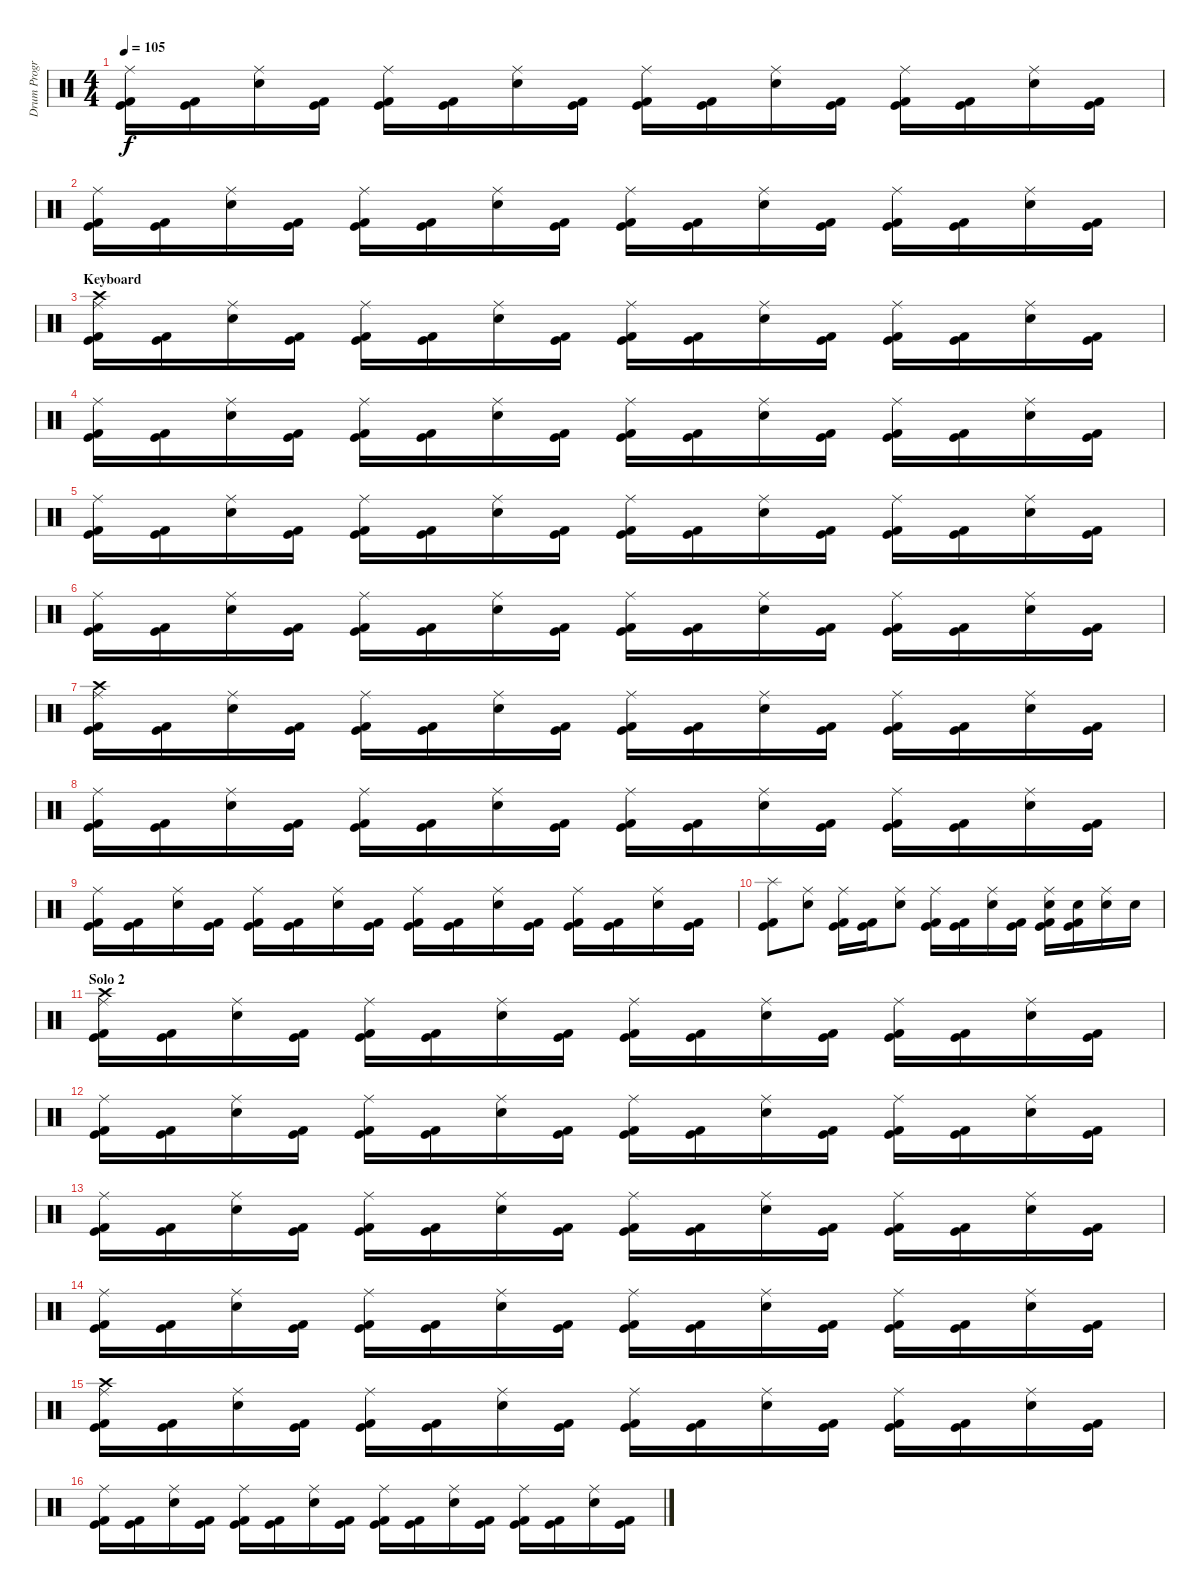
\track ("Drum Program - BG" "Drum Progr") {instrument percussion}
\staff {score}
\articulation defaults
\ts (4 4)
\tempo 105
\clef neutral
\ks c
("Kick (hit)" "Kick (hit) 2" "Ride (middle)").16{dy f} ("Kick (hit)" "Kick (hit) 2").16 ("Snare (hit) 2" "Ride (middle)").16 ("Kick (hit)" "Kick (hit) 2").16 ("Kick (hit)" "Kick (hit) 2" "Ride (middle)").16 ("Kick (hit)" "Kick (hit) 2").16 ("Snare (hit) 2" "Ride (middle)").16 ("Kick (hit)" "Kick (hit) 2").16 ("Kick (hit)" "Kick (hit) 2" "Ride (middle)").16 ("Kick (hit)" "Kick (hit) 2").16 ("Snare (hit) 2" "Ride (middle)").16 ("Kick (hit)" "Kick (hit) 2").16 ("Kick (hit)" "Kick (hit) 2" "Ride (middle)").16 ("Kick (hit)" "Kick (hit) 2").16 ("Snare (hit) 2" "Ride (middle)").16 ("Kick (hit)" "Kick (hit) 2").16 |
("Kick (hit)" "Kick (hit) 2" "Ride (middle)").16 ("Kick (hit)" "Kick (hit) 2").16 ("Snare (hit) 2" "Ride (middle)").16 ("Kick (hit)" "Kick (hit) 2").16 ("Kick (hit)" "Kick (hit) 2" "Ride (middle)").16 ("Kick (hit)" "Kick (hit) 2").16 ("Snare (hit) 2" "Ride (middle)").16 ("Kick (hit)" "Kick (hit) 2").16 ("Kick (hit)" "Kick (hit) 2" "Ride (middle)").16 ("Kick (hit)" "Kick (hit) 2").16 ("Snare (hit) 2" "Ride (middle)").16 ("Kick (hit)" "Kick (hit) 2").16 ("Kick (hit)" "Kick (hit) 2" "Ride (middle)").16 ("Kick (hit)" "Kick (hit) 2").16 ("Snare (hit) 2" "Ride (middle)").16 ("Kick (hit)" "Kick (hit) 2").16 |
\section ("" "Keyboard")
("Kick (hit)" "Kick (hit) 2" "Crash high (hit)" "Ride (middle)").16 ("Kick (hit)" "Kick (hit) 2").16 ("Snare (hit) 2" "Ride (middle)").16 ("Kick (hit)" "Kick (hit) 2").16 ("Kick (hit)" "Kick (hit) 2" "Ride (middle)").16 ("Kick (hit)" "Kick (hit) 2").16 ("Snare (hit) 2" "Ride (middle)").16 ("Kick (hit)" "Kick (hit) 2").16 ("Kick (hit)" "Kick (hit) 2" "Ride (middle)").16 ("Kick (hit)" "Kick (hit) 2").16 ("Snare (hit) 2" "Ride (middle)").16 ("Kick (hit)" "Kick (hit) 2").16 ("Kick (hit)" "Kick (hit) 2" "Ride (middle)").16 ("Kick (hit)" "Kick (hit) 2").16 ("Snare (hit) 2" "Ride (middle)").16 ("Kick (hit)" "Kick (hit) 2").16 |
("Kick (hit)" "Kick (hit) 2" "Ride (middle)").16 ("Kick (hit)" "Kick (hit) 2").16 ("Snare (hit) 2" "Ride (middle)").16 ("Kick (hit)" "Kick (hit) 2").16 ("Kick (hit)" "Kick (hit) 2" "Ride (middle)").16 ("Kick (hit)" "Kick (hit) 2").16 ("Snare (hit) 2" "Ride (middle)").16 ("Kick (hit)" "Kick (hit) 2").16 ("Kick (hit)" "Kick (hit) 2" "Ride (middle)").16 ("Kick (hit)" "Kick (hit) 2").16 ("Snare (hit) 2" "Ride (middle)").16 ("Kick (hit)" "Kick (hit) 2").16 ("Kick (hit)" "Kick (hit) 2" "Ride (middle)").16 ("Kick (hit)" "Kick (hit) 2").16 ("Snare (hit) 2" "Ride (middle)").16 ("Kick (hit)" "Kick (hit) 2").16 |
("Kick (hit)" "Kick (hit) 2" "Ride (middle)").16 ("Kick (hit)" "Kick (hit) 2").16 ("Snare (hit) 2" "Ride (middle)").16 ("Kick (hit)" "Kick (hit) 2").16 ("Kick (hit)" "Kick (hit) 2" "Ride (middle)").16 ("Kick (hit)" "Kick (hit) 2").16 ("Snare (hit) 2" "Ride (middle)").16 ("Kick (hit)" "Kick (hit) 2").16 ("Kick (hit)" "Kick (hit) 2" "Ride (middle)").16 ("Kick (hit)" "Kick (hit) 2").16 ("Snare (hit) 2" "Ride (middle)").16 ("Kick (hit)" "Kick (hit) 2").16 ("Kick (hit)" "Kick (hit) 2" "Ride (middle)").16 ("Kick (hit)" "Kick (hit) 2").16 ("Snare (hit) 2" "Ride (middle)").16 ("Kick (hit)" "Kick (hit) 2").16 |
("Kick (hit)" "Kick (hit) 2" "Ride (middle)").16 ("Kick (hit)" "Kick (hit) 2").16 ("Snare (hit) 2" "Ride (middle)").16 ("Kick (hit)" "Kick (hit) 2").16 ("Kick (hit)" "Kick (hit) 2" "Ride (middle)").16 ("Kick (hit)" "Kick (hit) 2").16 ("Snare (hit) 2" "Ride (middle)").16 ("Kick (hit)" "Kick (hit) 2").16 ("Kick (hit)" "Kick (hit) 2" "Ride (middle)").16 ("Kick (hit)" "Kick (hit) 2").16 ("Snare (hit) 2" "Ride (middle)").16 ("Kick (hit)" "Kick (hit) 2").16 ("Kick (hit)" "Kick (hit) 2" "Ride (middle)").16 ("Kick (hit)" "Kick (hit) 2").16 ("Snare (hit) 2" "Ride (middle)").16 ("Kick (hit)" "Kick (hit) 2").16 |
("Kick (hit)" "Kick (hit) 2" "Crash high (hit)" "Ride (middle)").16 ("Kick (hit)" "Kick (hit) 2").16 ("Snare (hit) 2" "Ride (middle)").16 ("Kick (hit)" "Kick (hit) 2").16 ("Kick (hit)" "Kick (hit) 2" "Ride (middle)").16 ("Kick (hit)" "Kick (hit) 2").16 ("Snare (hit) 2" "Ride (middle)").16 ("Kick (hit)" "Kick (hit) 2").16 ("Kick (hit)" "Kick (hit) 2" "Ride (middle)").16 ("Kick (hit)" "Kick (hit) 2").16 ("Snare (hit) 2" "Ride (middle)").16 ("Kick (hit)" "Kick (hit) 2").16 ("Kick (hit)" "Kick (hit) 2" "Ride (middle)").16 ("Kick (hit)" "Kick (hit) 2").16 ("Snare (hit) 2" "Ride (middle)").16 ("Kick (hit)" "Kick (hit) 2").16 |
("Kick (hit)" "Kick (hit) 2" "Ride (middle)").16 ("Kick (hit)" "Kick (hit) 2").16 ("Snare (hit) 2" "Ride (middle)").16 ("Kick (hit)" "Kick (hit) 2").16 ("Kick (hit)" "Kick (hit) 2" "Ride (middle)").16 ("Kick (hit)" "Kick (hit) 2").16 ("Snare (hit) 2" "Ride (middle)").16 ("Kick (hit)" "Kick (hit) 2").16 ("Kick (hit)" "Kick (hit) 2" "Ride (middle)").16 ("Kick (hit)" "Kick (hit) 2").16 ("Snare (hit) 2" "Ride (middle)").16 ("Kick (hit)" "Kick (hit) 2").16 ("Kick (hit)" "Kick (hit) 2" "Ride (middle)").16 ("Kick (hit)" "Kick (hit) 2").16 ("Snare (hit) 2" "Ride (middle)").16 ("Kick (hit)" "Kick (hit) 2").16 |
("Kick (hit)" "Kick (hit) 2" "Ride (middle)").16 ("Kick (hit)" "Kick (hit) 2").16 ("Snare (hit) 2" "Ride (middle)").16 ("Kick (hit)" "Kick (hit) 2").16 ("Kick (hit)" "Kick (hit) 2" "Ride (middle)").16 ("Kick (hit)" "Kick (hit) 2").16 ("Snare (hit) 2" "Ride (middle)").16 ("Kick (hit)" "Kick (hit) 2").16 ("Kick (hit)" "Kick (hit) 2" "Ride (middle)").16 ("Kick (hit)" "Kick (hit) 2").16 ("Snare (hit) 2" "Ride (middle)").16 ("Kick (hit)" "Kick (hit) 2").16 ("Kick (hit)" "Kick (hit) 2" "Ride (middle)").16 ("Kick (hit)" "Kick (hit) 2").16 ("Snare (hit) 2" "Ride (middle)").16 ("Kick (hit)" "Kick (hit) 2").16 |
("Kick (hit)" "Kick (hit) 2" "Splash (hit)").8 ("Snare (hit) 2" "Ride (middle)").8 ("Kick (hit)" "Kick (hit) 2" "Ride (middle)").16 ("Kick (hit)" "Kick (hit) 2").16 ("Snare (hit) 2" "Ride (middle)").8 ("Kick (hit)" "Kick (hit) 2" "Ride (middle)").16 ("Kick (hit)" "Kick (hit) 2").16 ("Electric Snare (hit)" "Ride (middle)").16 ("Kick (hit)" "Kick (hit) 2").16 ("Kick (hit)" "Kick (hit) 2" "Electric Snare (hit)" "Ride (middle)").16 ("Kick (hit)" "Kick (hit) 2" "Electric Snare (hit)").16 ("Electric Snare (hit)" "Ride (middle)").16 "Electric Snare (hit)".16 |
\section ("" "Solo 2")
("Kick (hit)" "Kick (hit) 2" "Crash high (hit)" "Ride (middle)").16 ("Kick (hit)" "Kick (hit) 2").16 ("Snare (hit) 2" "Ride (middle)").16 ("Kick (hit)" "Kick (hit) 2").16 ("Kick (hit)" "Kick (hit) 2" "Ride (middle)").16 ("Kick (hit)" "Kick (hit) 2").16 ("Snare (hit) 2" "Ride (middle)").16 ("Kick (hit)" "Kick (hit) 2").16 ("Kick (hit)" "Kick (hit) 2" "Ride (middle)").16 ("Kick (hit)" "Kick (hit) 2").16 ("Snare (hit) 2" "Ride (middle)").16 ("Kick (hit)" "Kick (hit) 2").16 ("Kick (hit)" "Kick (hit) 2" "Ride (middle)").16 ("Kick (hit)" "Kick (hit) 2").16 ("Snare (hit) 2" "Ride (middle)").16 ("Kick (hit)" "Kick (hit) 2").16 |
("Kick (hit)" "Kick (hit) 2" "Ride (middle)").16 ("Kick (hit)" "Kick (hit) 2").16 ("Snare (hit) 2" "Ride (middle)").16 ("Kick (hit)" "Kick (hit) 2").16 ("Kick (hit)" "Kick (hit) 2" "Ride (middle)").16 ("Kick (hit)" "Kick (hit) 2").16 ("Snare (hit) 2" "Ride (middle)").16 ("Kick (hit)" "Kick (hit) 2").16 ("Kick (hit)" "Kick (hit) 2" "Ride (middle)").16 ("Kick (hit)" "Kick (hit) 2").16 ("Snare (hit) 2" "Ride (middle)").16 ("Kick (hit)" "Kick (hit) 2").16 ("Kick (hit)" "Kick (hit) 2" "Ride (middle)").16 ("Kick (hit)" "Kick (hit) 2").16 ("Snare (hit) 2" "Ride (middle)").16 ("Kick (hit)" "Kick (hit) 2").16 |
("Kick (hit)" "Kick (hit) 2" "Ride (middle)").16 ("Kick (hit)" "Kick (hit) 2").16 ("Snare (hit) 2" "Ride (middle)").16 ("Kick (hit)" "Kick (hit) 2").16 ("Kick (hit)" "Kick (hit) 2" "Ride (middle)").16 ("Kick (hit)" "Kick (hit) 2").16 ("Snare (hit) 2" "Ride (middle)").16 ("Kick (hit)" "Kick (hit) 2").16 ("Kick (hit)" "Kick (hit) 2" "Ride (middle)").16 ("Kick (hit)" "Kick (hit) 2").16 ("Snare (hit) 2" "Ride (middle)").16 ("Kick (hit)" "Kick (hit) 2").16 ("Kick (hit)" "Kick (hit) 2" "Ride (middle)").16 ("Kick (hit)" "Kick (hit) 2").16 ("Snare (hit) 2" "Ride (middle)").16 ("Kick (hit)" "Kick (hit) 2").16 |
("Kick (hit)" "Kick (hit) 2" "Ride (middle)").16 ("Kick (hit)" "Kick (hit) 2").16 ("Snare (hit) 2" "Ride (middle)").16 ("Kick (hit)" "Kick (hit) 2").16 ("Kick (hit)" "Kick (hit) 2" "Ride (middle)").16 ("Kick (hit)" "Kick (hit) 2").16 ("Snare (hit) 2" "Ride (middle)").16 ("Kick (hit)" "Kick (hit) 2").16 ("Kick (hit)" "Kick (hit) 2" "Ride (middle)").16 ("Kick (hit)" "Kick (hit) 2").16 ("Snare (hit) 2" "Ride (middle)").16 ("Kick (hit)" "Kick (hit) 2").16 ("Kick (hit)" "Kick (hit) 2" "Ride (middle)").16 ("Kick (hit)" "Kick (hit) 2").16 ("Snare (hit) 2" "Ride (middle)").16 ("Kick (hit)" "Kick (hit) 2").16 |
("Kick (hit)" "Kick (hit) 2" "Crash high (hit)" "Ride (middle)").16 ("Kick (hit)" "Kick (hit) 2").16 ("Snare (hit) 2" "Ride (middle)").16 ("Kick (hit)" "Kick (hit) 2").16 ("Kick (hit)" "Kick (hit) 2" "Ride (middle)").16 ("Kick (hit)" "Kick (hit) 2").16 ("Snare (hit) 2" "Ride (middle)").16 ("Kick (hit)" "Kick (hit) 2").16 ("Kick (hit)" "Kick (hit) 2" "Ride (middle)").16 ("Kick (hit)" "Kick (hit) 2").16 ("Snare (hit) 2" "Ride (middle)").16 ("Kick (hit)" "Kick (hit) 2").16 ("Kick (hit)" "Kick (hit) 2" "Ride (middle)").16 ("Kick (hit)" "Kick (hit) 2").16 ("Snare (hit) 2" "Ride (middle)").16 ("Kick (hit)" "Kick (hit) 2").16 |
("Kick (hit)" "Kick (hit) 2" "Ride (middle)").16 ("Kick (hit)" "Kick (hit) 2").16 ("Snare (hit) 2" "Ride (middle)").16 ("Kick (hit)" "Kick (hit) 2").16 ("Kick (hit)" "Kick (hit) 2" "Ride (middle)").16 ("Kick (hit)" "Kick (hit) 2").16 ("Snare (hit) 2" "Ride (middle)").16 ("Kick (hit)" "Kick (hit) 2").16 ("Kick (hit)" "Kick (hit) 2" "Ride (middle)").16 ("Kick (hit)" "Kick (hit) 2").16 ("Snare (hit) 2" "Ride (middle)").16 ("Kick (hit)" "Kick (hit) 2").16 ("Kick (hit)" "Kick (hit) 2" "Ride (middle)").16 ("Kick (hit)" "Kick (hit) 2").16 ("Snare (hit) 2" "Ride (middle)").16 ("Kick (hit)" "Kick (hit) 2").16
